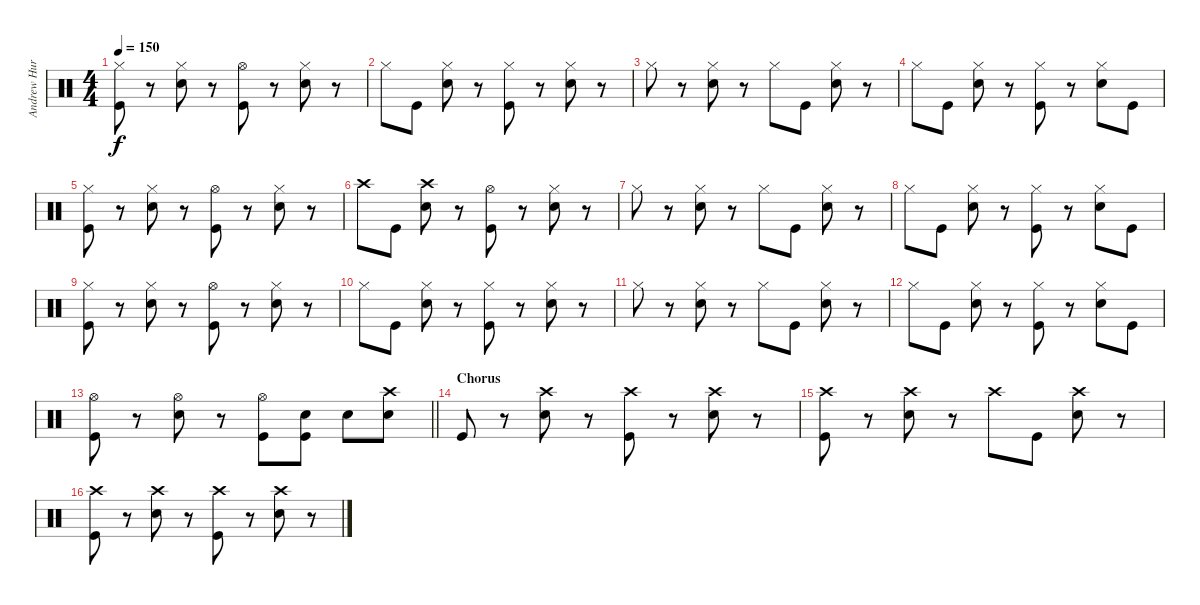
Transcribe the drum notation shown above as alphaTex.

\track ("Andrew Hurley (Drums)" "Andrew Hur") {instrument percussion}
\staff {score}
\articulation defaults
\ts (4 4)
\tempo 150
\clef neutral
\ks c
("Hi-Hat (closed)" "Kick (hit)").8{dy f} r.8 ("Hi-Hat (closed)" "Snare (hit) 2").8 r.8 ("Hi-Hat (open)" "Kick (hit)").8 r.8 ("Hi-Hat (closed)" "Snare (hit) 2").8 r.8 |
"Hi-Hat (closed)".8 "Kick (hit)".8 ("Hi-Hat (closed)" "Snare (hit) 2").8 r.8 ("Hi-Hat (closed)" "Kick (hit)").8 r.8 ("Hi-Hat (closed)" "Snare (hit) 2").8 r.8 |
"Hi-Hat (closed)".8 r.8 ("Hi-Hat (closed)" "Snare (hit) 2").8 r.8 "Hi-Hat (closed)".8 "Kick (hit)".8 ("Hi-Hat (closed)" "Snare (hit) 2").8 r.8 |
"Hi-Hat (closed)".8 "Kick (hit)".8 ("Hi-Hat (closed)" "Snare (hit) 2").8 r.8 ("Hi-Hat (closed)" "Kick (hit)").8 r.8 ("Hi-Hat (closed)" "Snare (hit) 2").8 "Kick (hit)".8 |
("Hi-Hat (closed)" "Kick (hit)").8 r.8 ("Hi-Hat (closed)" "Snare (hit) 2").8 r.8 ("Hi-Hat (open)" "Kick (hit)").8 r.8 ("Hi-Hat (closed)" "Snare (hit) 2").8 r.8 |
"Crash high (hit)".8 "Kick (hit)".8 ("Crash high (hit)" "Snare (hit) 2").8 r.8 ("Hi-Hat (open)" "Kick (hit)").8 r.8 ("Hi-Hat (closed)" "Snare (hit) 2").8 r.8 |
"Hi-Hat (closed)".8 r.8 ("Hi-Hat (closed)" "Snare (hit) 2").8 r.8 "Hi-Hat (closed)".8 "Kick (hit)".8 ("Hi-Hat (closed)" "Snare (hit) 2").8 r.8 |
"Hi-Hat (closed)".8 "Kick (hit)".8 ("Hi-Hat (closed)" "Snare (hit) 2").8 r.8 ("Hi-Hat (closed)" "Kick (hit)").8 r.8 ("Hi-Hat (closed)" "Snare (hit) 2").8 "Kick (hit)".8 |
("Hi-Hat (closed)" "Kick (hit)").8 r.8 ("Hi-Hat (closed)" "Snare (hit) 2").8 r.8 ("Hi-Hat (open)" "Kick (hit)").8 r.8 ("Hi-Hat (closed)" "Snare (hit) 2").8 r.8 |
"Hi-Hat (closed)".8 "Kick (hit)".8 ("Hi-Hat (closed)" "Snare (hit) 2").8 r.8 ("Hi-Hat (closed)" "Kick (hit)").8 r.8 ("Hi-Hat (closed)" "Snare (hit) 2").8 r.8 |
"Hi-Hat (closed)".8 r.8 ("Hi-Hat (closed)" "Snare (hit) 2").8 r.8 "Hi-Hat (closed)".8 "Kick (hit)".8 ("Hi-Hat (closed)" "Snare (hit) 2").8 r.8 |
"Hi-Hat (closed)".8 "Kick (hit)".8 ("Hi-Hat (closed)" "Snare (hit) 2").8 r.8 ("Hi-Hat (closed)" "Kick (hit)").8 r.8 ("Hi-Hat (closed)" "Snare (hit) 2").8 "Kick (hit)".8 |
\barLineRight lightlight
("Hi-Hat (open)" "Kick (hit)").8 r.8 ("Hi-Hat (open)" "Snare (hit) 2").8 r.8 ("Hi-Hat (open)" "Kick (hit)").8 ("Snare (hit) 2" "Kick (hit)").8 "Snare (hit) 2".8 ("Crash high (hit)" "Snare (hit) 2").8 |
\section ("" "Chorus")
"Kick (hit)".8 r.8 ("Crash high (hit)" "Snare (hit) 2").8 r.8 ("Crash high (hit)" "Kick (hit)").8 r.8 ("Crash high (hit)" "Snare (hit) 2").8 r.8 |
("Crash high (hit)" "Kick (hit)").8 r.8 ("Crash high (hit)" "Snare (hit) 2").8 r.8 "Crash high (hit)".8 "Kick (hit)".8 ("Crash high (hit)" "Snare (hit) 2").8 r.8 |
("Crash high (hit)" "Kick (hit)").8 r.8 ("Crash high (hit)" "Snare (hit) 2").8 r.8 ("Crash high (hit)" "Kick (hit)").8 r.8 ("Crash high (hit)" "Snare (hit) 2").8 r.8
